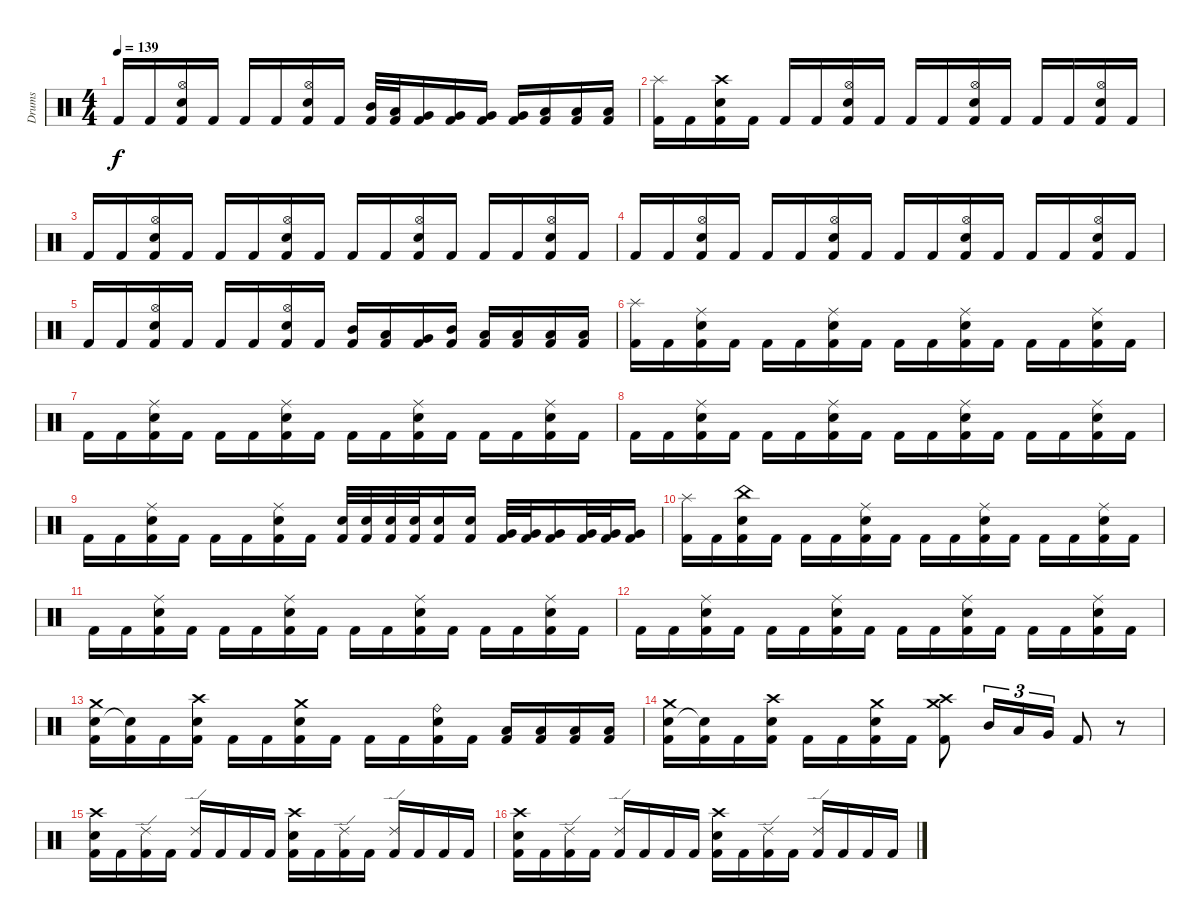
\track ("Drums" "Drums") {instrument percussion}
\staff {score}
\articulation defaults
\ts (4 4)
\tempo 139
\clef neutral
\ks c "Kick (hit) 2".16{dy f} "Kick (hit) 2".16
("Hi-Hat (open)" "Electric Snare (hit)" "Kick (hit) 2").16 "Kick (hit) 2".16 "Kick (hit) 2".16 "Kick (hit) 2".16 ("Hi-Hat (open)" "Electric Snare (hit)" "Kick (hit) 2").16 "Kick (hit) 2".16 ("Mid Tom (hit)" "Kick (hit) 2").32 ("Low Tom (hit)" "Kick (hit) 2").32 ("Very Low Tom (hit)" "Kick (hit) 2").16 ("Very Low Tom (hit)" "Kick (hit) 2").16 ("Very Low Tom (hit)" "Kick (hit) 2").16 ("Very Low Tom (hit)" "Kick (hit) 2").16 ("Low Floor Tom (hit)" "Kick (hit) 2").16 ("Low Floor Tom (hit)" "Kick (hit) 2").16 ("Low Floor Tom (hit)" "Kick (hit) 2").16 |
("Splash (hit)" "Kick (hit) 2").16 "Kick (hit) 2".16 ("Crash high (hit)" "Snare (hit) 2" "Kick (hit) 2").16 "Kick (hit) 2".16 "Kick (hit) 2".16 "Kick (hit) 2".16 ("Hi-Hat (open)" "Snare (hit) 2" "Kick (hit) 2").16 "Kick (hit) 2".16 "Kick (hit) 2".16 "Kick (hit) 2".16 ("Hi-Hat (open)" "Snare (hit) 2" "Kick (hit) 2").16 "Kick (hit) 2".16 "Kick (hit) 2".16 "Kick (hit) 2".16 ("Hi-Hat (open)" "Snare (hit) 2" "Kick (hit) 2").16 "Kick (hit) 2".16 |
"Kick (hit) 2".16 "Kick (hit) 2".16 ("Hi-Hat (open)" "Electric Snare (hit)" "Kick (hit) 2").16 "Kick (hit) 2".16 "Kick (hit) 2".16 "Kick (hit) 2".16 ("Hi-Hat (open)" "Electric Snare (hit)" "Kick (hit) 2").16 "Kick (hit) 2".16 "Kick (hit) 2".16 "Kick (hit) 2".16 ("Hi-Hat (open)" "Electric Snare (hit)" "Kick (hit) 2").16 "Kick (hit) 2".16 "Kick (hit) 2".16 "Kick (hit) 2".16 ("Hi-Hat (open)" "Electric Snare (hit)" "Kick (hit) 2").16 "Kick (hit) 2".16 |
"Kick (hit) 2".16 "Kick (hit) 2".16 ("Hi-Hat (open)" "Electric Snare (hit)" "Kick (hit) 2").16 "Kick (hit) 2".16 "Kick (hit) 2".16 "Kick (hit) 2".16 ("Hi-Hat (open)" "Electric Snare (hit)" "Kick (hit) 2").16 "Kick (hit) 2".16 "Kick (hit) 2".16 "Kick (hit) 2".16 ("Hi-Hat (open)" "Electric Snare (hit)" "Kick (hit) 2").16 "Kick (hit) 2".16 "Kick (hit) 2".16 "Kick (hit) 2".16 ("Hi-Hat (open)" "Electric Snare (hit)" "Kick (hit) 2").16 "Kick (hit) 2".16 |
"Kick (hit) 2".16 "Kick (hit) 2".16 ("Hi-Hat (open)" "Electric Snare (hit)" "Kick (hit) 2").16 "Kick (hit) 2".16 "Kick (hit) 2".16 "Kick (hit) 2".16 ("Hi-Hat (open)" "Electric Snare (hit)" "Kick (hit) 2").16 "Kick (hit) 2".16 ("Mid Tom (hit)" "Kick (hit) 2").16 ("Low Tom (hit)" "Kick (hit) 2").16 ("Very Low Tom (hit)" "Kick (hit) 2").16 ("Mid Tom (hit)" "Kick (hit) 2").16 ("Low Floor Tom (hit)" "Kick (hit) 2").16 ("Low Tom (hit)" "Kick (hit) 2").16 ("Low Floor Tom (hit)" "Kick (hit) 2").16 ("Low Tom (hit)" "Kick (hit) 2").16 |
("Splash (hit)" "Kick (hit) 2").16 "Kick (hit) 2".16 ("Ride (middle)" "Electric Snare (hit)" "Kick (hit) 2").16 "Kick (hit) 2".16 "Kick (hit) 2".16 "Kick (hit) 2".16 ("Ride (middle)" "Electric Snare (hit)" "Kick (hit) 2").16 "Kick (hit) 2".16 "Kick (hit) 2".16 "Kick (hit) 2".16 ("Ride (middle)" "Electric Snare (hit)" "Kick (hit) 2").16 "Kick (hit) 2".16 "Kick (hit) 2".16 "Kick (hit) 2".16 ("Ride (middle)" "Electric Snare (hit)" "Kick (hit) 2").16 "Kick (hit) 2".16 |
"Kick (hit) 2".16 "Kick (hit) 2".16 ("Ride (middle)" "Electric Snare (hit)" "Kick (hit) 2").16 "Kick (hit) 2".16 "Kick (hit) 2".16 "Kick (hit) 2".16 ("Ride (middle)" "Electric Snare (hit)" "Kick (hit) 2").16 "Kick (hit) 2".16 "Kick (hit) 2".16 "Kick (hit) 2".16 ("Ride (middle)" "Electric Snare (hit)" "Kick (hit) 2").16 "Kick (hit) 2".16 "Kick (hit) 2".16 "Kick (hit) 2".16 ("Ride (middle)" "Electric Snare (hit)" "Kick (hit) 2").16 "Kick (hit) 2".16 |
"Kick (hit) 2".16 "Kick (hit) 2".16 ("Ride (middle)" "Electric Snare (hit)" "Kick (hit) 2").16 "Kick (hit) 2".16 "Kick (hit) 2".16 "Kick (hit) 2".16 ("Ride (middle)" "Electric Snare (hit)" "Kick (hit) 2").16 "Kick (hit) 2".16 "Kick (hit) 2".16 "Kick (hit) 2".16 ("Ride (middle)" "Electric Snare (hit)" "Kick (hit) 2").16 "Kick (hit) 2".16 "Kick (hit) 2".16 "Kick (hit) 2".16 ("Ride (middle)" "Electric Snare (hit)" "Kick (hit) 2").16 "Kick (hit) 2".16 |
"Kick (hit) 2".16 "Kick (hit) 2".16 ("Ride (middle)" "Electric Snare (hit)" "Kick (hit) 2").16 "Kick (hit) 2".16 "Kick (hit) 2".16 "Kick (hit) 2".16 ("Ride (middle)" "Electric Snare (hit)" "Kick (hit) 2").16 "Kick (hit) 2".16 ("Electric Snare (hit)" "Kick (hit) 2").32 ("Electric Snare (hit)" "Kick (hit) 2").32 ("Electric Snare (hit)" "Kick (hit) 2").32 ("Electric Snare (hit)" "Kick (hit) 2").32 ("Electric Snare (hit)" "Kick (hit) 2").16 ("Electric Snare (hit)" "Kick (hit) 2").16 ("Very Low Tom (hit)" "Kick (hit) 2").32 ("Very Low Tom (hit)" "Kick (hit) 2").32 ("Very Low Tom (hit)" "Kick (hit) 2").16 ("Very Low Tom (hit)" "Kick (hit) 2").32 ("Very Low Tom (hit)" "Kick (hit) 2").32 ("Very Low Tom (hit)" "Kick (hit) 2").16 |
("Splash (hit)" "Kick (hit) 2").16 "Kick (hit) 2".16 ("China (hit)" "Electric Snare (hit)" "Kick (hit) 2").16 "Kick (hit) 2".16 "Kick (hit) 2".16 "Kick (hit) 2".16 ("Ride (middle)" "Electric Snare (hit)" "Kick (hit) 2").16 "Kick (hit) 2".16 "Kick (hit) 2".16 "Kick (hit) 2".16 ("Ride (middle)" "Electric Snare (hit)" "Kick (hit) 2").16 "Kick (hit) 2".16 "Kick (hit) 2".16 "Kick (hit) 2".16 ("Ride (middle)" "Electric Snare (hit)" "Kick (hit) 2").16 "Kick (hit) 2".16 |
"Kick (hit) 2".16 "Kick (hit) 2".16 ("Ride (middle)" "Electric Snare (hit)" "Kick (hit) 2").16 "Kick (hit) 2".16 "Kick (hit) 2".16 "Kick (hit) 2".16 ("Ride (middle)" "Electric Snare (hit)" "Kick (hit) 2").16 "Kick (hit) 2".16 "Kick (hit) 2".16 "Kick (hit) 2".16 ("Ride (middle)" "Electric Snare (hit)" "Kick (hit) 2").16 "Kick (hit) 2".16 "Kick (hit) 2".16 "Kick (hit) 2".16 ("Ride (middle)" "Electric Snare (hit)" "Kick (hit) 2").16 "Kick (hit) 2".16 |
"Kick (hit) 2".16 "Kick (hit) 2".16 ("Ride (middle)" "Electric Snare (hit)" "Kick (hit) 2").16 "Kick (hit) 2".16 "Kick (hit) 2".16 "Kick (hit) 2".16 ("Ride (middle)" "Electric Snare (hit)" "Kick (hit) 2").16 "Kick (hit) 2".16 "Kick (hit) 2".16 "Kick (hit) 2".16 ("Ride (middle)" "Electric Snare (hit)" "Kick (hit) 2").16 "Kick (hit) 2".16 "Kick (hit) 2".16 "Kick (hit) 2".16 ("Ride (middle)" "Electric Snare (hit)" "Kick (hit) 2").16 "Kick (hit) 2".16 |
("Electric Snare (hit)" "Crash medium (hit)" "Kick (hit) 2").16 ("Snare (hit)"{t} "Kick (hit) 2").16 "Kick (hit) 2".16 ("Electric Snare (hit)" "Crash high (hit)" "Kick (hit) 2").16 "Kick (hit) 2".16 "Kick (hit) 2".16 ("Electric Snare (hit)" "Crash medium (hit)" "Kick (hit) 2").16 "Kick (hit) 2".16 "Kick (hit) 2".16 "Kick (hit) 2".16 ("Ride (bell)" "Electric Snare (hit)" "Kick (hit) 2").16 "Kick (hit) 2".16 ("Low Floor Tom (hit)" "Kick (hit) 2").16 ("Low Floor Tom (hit)" "Kick (hit) 2").16 ("Low Floor Tom (hit)" "Kick (hit) 2").16 ("Low Floor Tom (hit)" "Kick (hit) 2").16 |
("Electric Snare (hit)" "Crash medium (hit)" "Kick (hit) 2").16 ("Snare (hit)"{t} "Kick (hit) 2").16 "Kick (hit) 2".16 ("Electric Snare (hit)" "Crash high (hit)" "Kick (hit) 2").16 "Kick (hit) 2".16 "Kick (hit) 2".16 ("Electric Snare (hit)" "Crash medium (hit)" "Kick (hit) 2").16 "Kick (hit) 2".16 ("Crash high (hit)" "Crash medium (hit)" "Kick (hit) 2").8 "Mid Tom (hit)".16{tu (3 2)} "Low Tom (hit)".16{tu (3 2)} "Very Low Tom (hit)".16{tu (3 2)} "Kick (hit) 2".8 r.8 |
("Crash high (hit)" "Electric Snare (hit)" "Kick (hit) 2").16 "Kick (hit) 2".16 ("Ride (edge) 2" "Kick (hit) 2").16 "Kick (hit) 2".16 ("Ride (edge) 2" "Kick (hit) 2").16 "Kick (hit) 2".16 "Kick (hit) 2".16 "Kick (hit) 2".16 ("Crash high (hit)" "Electric Snare (hit)" "Kick (hit) 2").16 "Kick (hit) 2".16 ("Ride (edge) 2" "Kick (hit) 2").16 "Kick (hit) 2".16 ("Ride (edge) 2" "Kick (hit) 2").16 "Kick (hit) 2".16 "Kick (hit) 2".16 "Kick (hit) 2".16 |
("Crash high (hit)" "Electric Snare (hit)" "Kick (hit) 2").16 "Kick (hit) 2".16 ("Ride (edge) 2" "Kick (hit) 2").16 "Kick (hit) 2".16 ("Ride (edge) 2" "Kick (hit) 2").16 "Kick (hit) 2".16 "Kick (hit) 2".16 "Kick (hit) 2".16 ("Crash high (hit)" "Electric Snare (hit)" "Kick (hit) 2").16 "Kick (hit) 2".16 ("Ride (edge) 2" "Kick (hit) 2").16 "Kick (hit) 2".16 ("Ride (edge) 2" "Kick (hit) 2").16 "Kick (hit) 2".16 "Kick (hit) 2".16 "Kick (hit) 2".16
